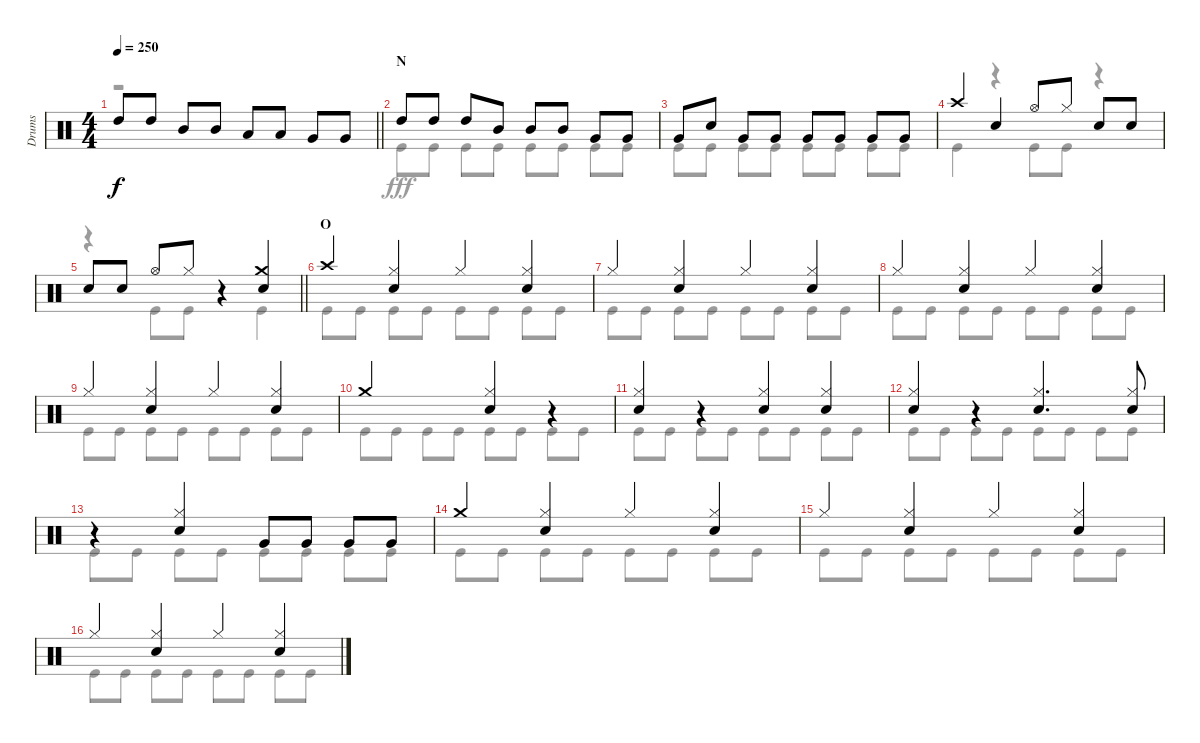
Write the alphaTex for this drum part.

\track ("Drums" "Drums") {instrument percussion}
\staff {score}
\articulation defaults
\voice
\ts (4 4)
\tempo 250
\clef neutral
\barLineRight lightlight
\ks c "High Tom (hit)".8{dy f} "High Tom (hit)".8 "Mid Tom (hit)".8 "Mid Tom (hit)".8 "Low Tom (hit)".8 "Low Tom (hit)".8 "Very Low Tom (hit)".8 "Very Low Tom (hit)".8
|
\section ("" "N")
"High Tom (hit)".8 "High Tom (hit)".8 "High Tom (hit)".8 "Mid Tom (hit)".8 "Mid Tom (hit)".8 "Mid Tom (hit)".8 "Very Low Tom (hit)".8 "Very Low Tom (hit)".8 |
"Very Low Tom (hit)".8 "Snare (hit) 2".8 "Very Low Tom (hit)".8 "Very Low Tom (hit)".8 "Very Low Tom (hit)".8 "Very Low Tom (hit)".8 "Very Low Tom (hit)".8 "Very Low Tom (hit)".8 |
"Crash high (hit)".4 "Snare (hit) 2".4 "Hi-Hat (open)".8 "Hi-Hat (closed)".8 "Snare (hit) 2".8 "Snare (hit) 2".8 |
\barLineRight lightlight "Snare (hit) 2".8 "Snare (hit) 2".8 "Hi-Hat (open)".8 "Hi-Hat (closed)".8
r.4 ("Crash medium (hit)" "Snare (hit) 2").4 |
\section ("" "O")
"Crash high (hit)".4 ("Hi-Hat (closed)" "Snare (hit) 2").4 "Hi-Hat (closed)".4 ("Hi-Hat (closed)" "Snare (hit) 2").4 |
"Hi-Hat (closed)".4 ("Hi-Hat (closed)" "Snare (hit) 2").4 "Hi-Hat (closed)".4 ("Hi-Hat (closed)" "Snare (hit) 2").4 |
"Hi-Hat (closed)".4 ("Hi-Hat (closed)" "Snare (hit) 2").4 "Hi-Hat (closed)".4 ("Hi-Hat (closed)" "Snare (hit) 2").4 |
"Hi-Hat (closed)".4 ("Hi-Hat (closed)" "Snare (hit) 2").4 "Hi-Hat (closed)".4 ("Hi-Hat (closed)" "Snare (hit) 2").4 |
"Crash medium (hit)".2 ("Hi-Hat (closed)" "Snare (hit) 2").4 r.4 |
("Hi-Hat (closed)" "Snare (hit) 2").4 r.4 ("Hi-Hat (closed)" "Snare (hit) 2").4 ("Hi-Hat (closed)" "Snare (hit) 2").4 |
("Hi-Hat (closed)" "Snare (hit) 2").4 r.4 ("Hi-Hat (closed)" "Snare (hit) 2").4{d} ("Hi-Hat (closed)" "Snare (hit) 2").8 |
r.4 ("Hi-Hat (closed)" "Snare (hit) 2").4 "Very Low Tom (hit)".8 "Very Low Tom (hit)".8 "Very Low Tom (hit)".8 "Very Low Tom (hit)".8 |
"Crash medium (hit)".4 ("Hi-Hat (closed)" "Snare (hit) 2").4 "Hi-Hat (closed)".4 ("Hi-Hat (closed)" "Snare (hit) 2").4 |
"Hi-Hat (closed)".4 ("Hi-Hat (closed)" "Snare (hit) 2").4 "Hi-Hat (closed)".4 ("Hi-Hat (closed)" "Snare (hit) 2").4 |
"Hi-Hat (closed)".4 ("Hi-Hat (closed)" "Snare (hit) 2").4 "Hi-Hat (closed)".4 ("Hi-Hat (closed)" "Snare (hit) 2").4
\voice
\clef neutral
\ottava regular
\simile none
\barLineRight lightlight
\ks c
r.1{dy fff} |
"Kick (hit)".8 "Kick (hit)".8 "Kick (hit)".8 "Kick (hit)".8 "Kick (hit)".8 "Kick (hit)".8 "Kick (hit)".8 "Kick (hit)".8 |
"Kick (hit)".8 "Kick (hit)".8 "Kick (hit)".8 "Kick (hit)".8 "Kick (hit)".8 "Kick (hit)".8 "Kick (hit)".8 "Kick (hit)".8 |
"Kick (hit)".4 r.4 "Kick (hit)".8 "Kick (hit)".8 r.4 |
\barLineRight lightlight
r.4 "Kick (hit)".8 "Kick (hit)".8 r.4 "Kick (hit)".4 |
"Kick (hit)".8 "Kick (hit)".8 "Kick (hit)".8 "Kick (hit)".8 "Kick (hit)".8 "Kick (hit)".8 "Kick (hit)".8 "Kick (hit)".8 |
"Kick (hit)".8 "Kick (hit)".8 "Kick (hit)".8 "Kick (hit)".8 "Kick (hit)".8 "Kick (hit)".8 "Kick (hit)".8 "Kick (hit)".8 |
"Kick (hit)".8 "Kick (hit)".8 "Kick (hit)".8 "Kick (hit)".8 "Kick (hit)".8 "Kick (hit)".8 "Kick (hit)".8 "Kick (hit)".8 |
"Kick (hit)".8 "Kick (hit)".8 "Kick (hit)".8 "Kick (hit)".8 "Kick (hit)".8 "Kick (hit)".8 "Kick (hit)".8 "Kick (hit)".8 |
"Kick (hit)".8 "Kick (hit)".8 "Kick (hit)".8 "Kick (hit)".8 "Kick (hit)".8 "Kick (hit)".8 "Kick (hit)".8 "Kick (hit)".8 |
"Kick (hit)".8 "Kick (hit)".8 "Kick (hit)".8 "Kick (hit)".8 "Kick (hit)".8 "Kick (hit)".8 "Kick (hit)".8 "Kick (hit)".8 |
"Kick (hit)".8 "Kick (hit)".8 "Kick (hit)".8 "Kick (hit)".8 "Kick (hit)".8 "Kick (hit)".8 "Kick (hit)".8 "Kick (hit)".8 |
"Kick (hit)".8 "Kick (hit)".8 "Kick (hit)".8 "Kick (hit)".8 "Kick (hit)".8 "Kick (hit)".8 "Kick (hit)".8 "Kick (hit)".8 |
"Kick (hit)".8 "Kick (hit)".8 "Kick (hit)".8 "Kick (hit)".8 "Kick (hit)".8 "Kick (hit)".8 "Kick (hit)".8 "Kick (hit)".8 |
"Kick (hit)".8 "Kick (hit)".8 "Kick (hit)".8 "Kick (hit)".8 "Kick (hit)".8 "Kick (hit)".8 "Kick (hit)".8 "Kick (hit)".8 |
"Kick (hit)".8 "Kick (hit)".8 "Kick (hit)".8 "Kick (hit)".8 "Kick (hit)".8 "Kick (hit)".8 "Kick (hit)".8 "Kick (hit)".8
